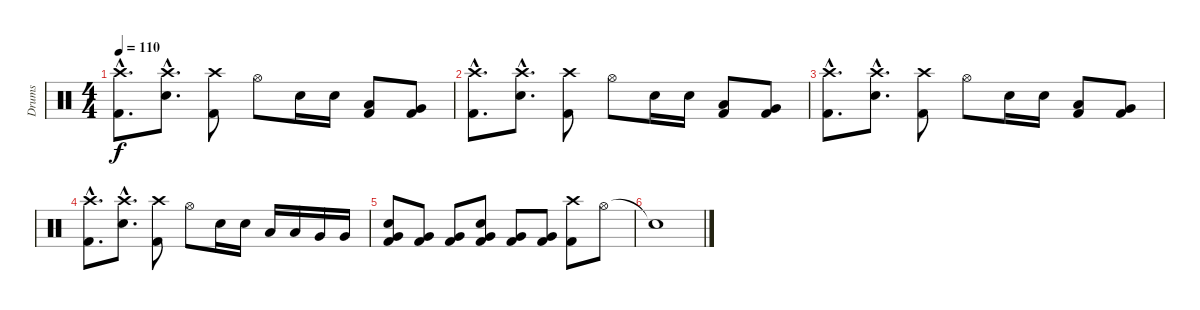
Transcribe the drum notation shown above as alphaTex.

\track ("Drums" "Drums") {instrument percussion}
\staff {score}
\articulation defaults
\ts (4 4)
\tempo 110
\clef neutral
\ks c
("Crash high (hit)"{hac} "Kick (hit) 2"{hac}).8{d dy f} ("Crash high (hit)"{hac} "Snare (hit) 2"{hac}).8{d} ("Crash high (hit)" "Kick (hit) 2").8 "Hi-Hat (open)".8 "Snare (hit) 2".16 "Snare (hit) 2".16 ("Low Tom (hit)" "Kick (hit) 2").8 ("Very Low Tom (hit)" "Kick (hit) 2").8 |
("Crash high (hit)"{hac} "Kick (hit) 2"{hac}).8{d} ("Crash high (hit)"{hac} "Snare (hit) 2"{hac}).8{d} ("Crash high (hit)" "Kick (hit) 2").8 "Hi-Hat (open)".8 "Snare (hit) 2".16 "Snare (hit) 2".16 ("Low Tom (hit)" "Kick (hit) 2").8 ("Very Low Tom (hit)" "Kick (hit) 2").8 |
("Crash high (hit)"{hac} "Kick (hit) 2"{hac}).8{d} ("Crash high (hit)"{hac} "Snare (hit) 2"{hac}).8{d} ("Crash high (hit)" "Kick (hit) 2").8 "Hi-Hat (open)".8 "Snare (hit) 2".16 "Snare (hit) 2".16 ("Low Tom (hit)" "Kick (hit) 2").8 ("Very Low Tom (hit)" "Kick (hit) 2").8 |
("Crash high (hit)"{hac} "Kick (hit) 2"{hac}).8{d} ("Crash high (hit)"{hac} "Snare (hit) 2"{hac}).8{d} ("Crash high (hit)" "Kick (hit) 2").8 "Hi-Hat (open)".8 "Snare (hit) 2".16 "Snare (hit) 2".16 "Low Tom (hit)".16 "Low Tom (hit)".16 "Very Low Tom (hit)".16 "Very Low Tom (hit)".16 |
("Very Low Tom (hit)" "Snare (hit) 2" "Kick (hit) 2").8 ("Very Low Tom (hit)" "Kick (hit) 2").8 ("Very Low Tom (hit)" "Kick (hit) 2").8 ("Very Low Tom (hit)" "Snare (hit) 2" "Kick (hit) 2").8 ("Very Low Tom (hit)" "Kick (hit) 2").8 ("Very Low Tom (hit)" "Kick (hit) 2").8 ("Crash high (hit)" "Kick (hit) 2").8 "Hi-Hat (open)".8 |
"Snare (hit)"{t}.1
